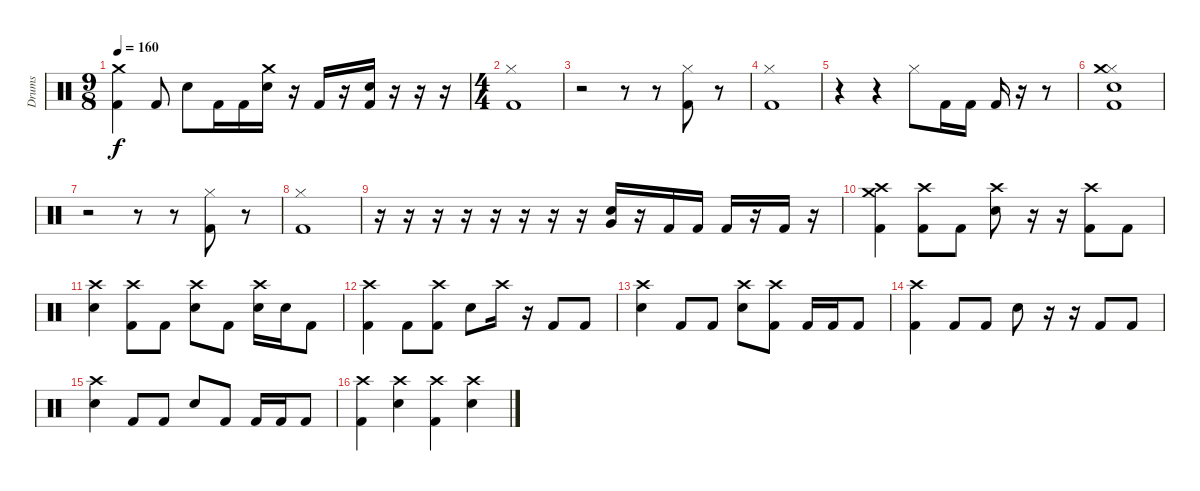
\track ("Drums" "Drums") {instrument percussion}
\staff {score}
\articulation defaults
\ts (9 8)
\tempo 160
\clef neutral
\ks c
("Crash medium (hit)" "Kick (hit) 2").4{dy f} "Kick (hit) 2".8 "Snare (hit) 2".8 "Kick (hit) 2".16 "Kick (hit) 2".16 ("Crash medium (hit)" "Snare (hit) 2").16 r.16 "Kick (hit) 2".16 r.16 ("Snare (hit) 2" "Kick (hit) 2").16 r.16 r.16 r.16 |
\ts (4 4)
("Hi-Hat (closed)" "Kick (hit) 2").1 |
r.2 r.8 r.8 ("Hi-Hat (closed)" "Kick (hit) 2").8 r.8 |
("Hi-Hat (closed)" "Kick (hit) 2").1 |
r.4 r.4 "Hi-Hat (closed)".8 "Kick (hit) 2".16 "Kick (hit) 2".16 "Kick (hit) 2".16 r.16 r.8 |
("Kick (hit) 2" "Hi-Hat (closed)" "Snare (hit) 2" "Crash medium (hit)").1 |
r.2 r.8 r.8 ("Hi-Hat (closed)" "Kick (hit) 2").8 r.8 |
("Hi-Hat (closed)" "Kick (hit) 2").1 |
r.16 r.16 r.16 r.16 r.16 r.16 r.16 r.16 ("Very Low Tom (hit)" "Snare (hit) 2").16 r.16 "Kick (hit) 2".16 "Kick (hit) 2".16 "Kick (hit) 2".16 r.16 "Kick (hit) 2".16 r.16 |
("Crash high (hit)" "Crash medium (hit)" "Kick (hit) 2").4 ("Crash high (hit)" "Kick (hit) 2").8 "Kick (hit) 2".8 ("Crash high (hit)" "Snare (hit) 2").8 r.16 r.16 ("Crash high (hit)" "Kick (hit) 2").8 "Kick (hit) 2".8 |
("Crash high (hit)" "Snare (hit) 2").4 ("Crash high (hit)" "Kick (hit) 2").8 "Kick (hit) 2".8 ("Crash high (hit)" "Snare (hit) 2").8 "Kick (hit) 2".8 ("Crash high (hit)" "Snare (hit) 2").16 "Snare (hit) 2".16 "Kick (hit) 2".8 |
("Crash high (hit)" "Kick (hit) 2").4 "Kick (hit) 2".8 ("Crash high (hit)" "Kick (hit) 2").8 "Snare (hit) 2".8 "Crash high (hit)".16 r.16 "Kick (hit) 2".8 "Kick (hit) 2".8 |
("Crash high (hit)" "Snare (hit) 2").4 "Kick (hit) 2".8 "Kick (hit) 2".8 ("Crash high (hit)" "Snare (hit) 2").8 ("Crash high (hit)" "Kick (hit) 2").8 "Kick (hit) 2".16 "Kick (hit) 2".16 "Kick (hit) 2".8 |
("Crash high (hit)" "Kick (hit) 2").4 "Kick (hit) 2".8 "Kick (hit) 2".8 "Snare (hit) 2".8 r.16 r.16 "Kick (hit) 2".8 "Kick (hit) 2".8 |
("Crash high (hit)" "Snare (hit) 2").4 "Kick (hit) 2".8 "Kick (hit) 2".8 "Snare (hit) 2".8 "Kick (hit) 2".8 "Kick (hit) 2".16 "Kick (hit) 2".16 "Kick (hit) 2".8 |
("Crash high (hit)" "Kick (hit) 2").4 ("Crash high (hit)" "Snare (hit) 2").4 ("Crash high (hit)" "Kick (hit) 2").4 ("Crash high (hit)" "Snare (hit) 2").4
